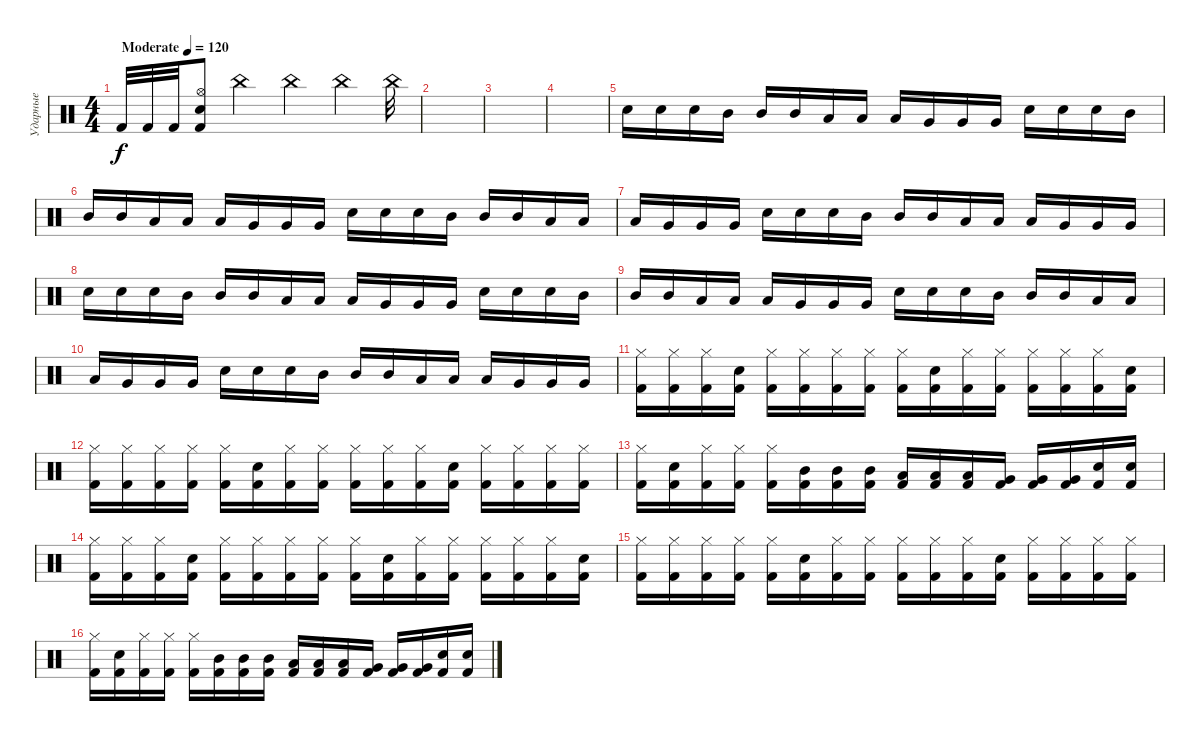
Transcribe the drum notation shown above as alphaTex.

\track ("Ударные" "Ударные") {instrument percussion}
\staff {score}
\articulation defaults
\ts (4 4)
\tempo (120 "Moderate")
\clef neutral
\ks c "Kick (hit) 2".32{dy f} "Kick (hit) 2".32 "Kick (hit) 2".32
("Hi-Hat (open)" "Snare (hit) 2" "Kick (hit) 2").8 "China (hit)".4 "China (hit)".4 "China (hit)".4 "China (hit)".32 |
|
|
|
"Snare (hit) 2".16 "Snare (hit) 2".16 "Snare (hit) 2".16 "Mid Tom (hit)".16 "Mid Tom (hit)".16 "Mid Tom (hit)".16 "Low Tom (hit)".16 "Low Tom (hit)".16 "Low Tom (hit)".16 "Very Low Tom (hit)".16 "Very Low Tom (hit)".16 "Very Low Tom (hit)".16 "Snare (hit) 2".16 "Snare (hit) 2".16 "Snare (hit) 2".16 "Mid Tom (hit)".16 |
"Mid Tom (hit)".16 "Mid Tom (hit)".16 "Low Tom (hit)".16 "Low Tom (hit)".16 "Low Tom (hit)".16 "Very Low Tom (hit)".16 "Very Low Tom (hit)".16 "Very Low Tom (hit)".16 "Snare (hit) 2".16 "Snare (hit) 2".16 "Snare (hit) 2".16 "Mid Tom (hit)".16 "Mid Tom (hit)".16 "Mid Tom (hit)".16 "Low Tom (hit)".16 "Low Tom (hit)".16 |
"Low Tom (hit)".16 "Very Low Tom (hit)".16 "Very Low Tom (hit)".16 "Very Low Tom (hit)".16 "Snare (hit) 2".16 "Snare (hit) 2".16 "Snare (hit) 2".16 "Mid Tom (hit)".16 "Mid Tom (hit)".16 "Mid Tom (hit)".16 "Low Tom (hit)".16 "Low Tom (hit)".16 "Low Tom (hit)".16 "Very Low Tom (hit)".16 "Very Low Tom (hit)".16 "Very Low Tom (hit)".16 |
"Snare (hit) 2".16 "Snare (hit) 2".16 "Snare (hit) 2".16 "Mid Tom (hit)".16 "Mid Tom (hit)".16 "Mid Tom (hit)".16 "Low Tom (hit)".16 "Low Tom (hit)".16 "Low Tom (hit)".16 "Very Low Tom (hit)".16 "Very Low Tom (hit)".16 "Very Low Tom (hit)".16 "Snare (hit) 2".16 "Snare (hit) 2".16 "Snare (hit) 2".16 "Mid Tom (hit)".16 |
"Mid Tom (hit)".16 "Mid Tom (hit)".16 "Low Tom (hit)".16 "Low Tom (hit)".16 "Low Tom (hit)".16 "Very Low Tom (hit)".16 "Very Low Tom (hit)".16 "Very Low Tom (hit)".16 "Snare (hit) 2".16 "Snare (hit) 2".16 "Snare (hit) 2".16 "Mid Tom (hit)".16 "Mid Tom (hit)".16 "Mid Tom (hit)".16 "Low Tom (hit)".16 "Low Tom (hit)".16 |
"Low Tom (hit)".16 "Very Low Tom (hit)".16 "Very Low Tom (hit)".16 "Very Low Tom (hit)".16 "Snare (hit) 2".16 "Snare (hit) 2".16 "Snare (hit) 2".16 "Mid Tom (hit)".16 "Mid Tom (hit)".16 "Mid Tom (hit)".16 "Low Tom (hit)".16 "Low Tom (hit)".16 "Low Tom (hit)".16 "Very Low Tom (hit)".16 "Very Low Tom (hit)".16 "Very Low Tom (hit)".16 |
("Hi-Hat (closed)" "Kick (hit) 2").16 ("Hi-Hat (closed)" "Kick (hit) 2").16 ("Hi-Hat (closed)" "Kick (hit) 2").16 ("Snare (hit) 2" "Kick (hit) 2").16 ("Hi-Hat (closed)" "Kick (hit) 2").16 ("Hi-Hat (closed)" "Kick (hit) 2").16 ("Hi-Hat (closed)" "Kick (hit) 2").16 ("Hi-Hat (closed)" "Kick (hit) 2").16 ("Hi-Hat (closed)" "Kick (hit) 2").16 ("Snare (hit) 2" "Kick (hit) 2").16 ("Hi-Hat (closed)" "Kick (hit) 2").16 ("Hi-Hat (closed)" "Kick (hit) 2").16 ("Hi-Hat (closed)" "Kick (hit) 2").16 ("Hi-Hat (closed)" "Kick (hit) 2").16 ("Hi-Hat (closed)" "Kick (hit) 2").16 ("Snare (hit) 2" "Kick (hit) 2").16 |
("Hi-Hat (closed)" "Kick (hit) 2").16 ("Hi-Hat (closed)" "Kick (hit) 2").16 ("Hi-Hat (closed)" "Kick (hit) 2").16 ("Hi-Hat (closed)" "Kick (hit) 2").16 ("Hi-Hat (closed)" "Kick (hit) 2").16 ("Snare (hit) 2" "Kick (hit) 2").16 ("Hi-Hat (closed)" "Kick (hit) 2").16 ("Hi-Hat (closed)" "Kick (hit) 2").16 ("Hi-Hat (closed)" "Kick (hit) 2").16 ("Hi-Hat (closed)" "Kick (hit) 2").16 ("Hi-Hat (closed)" "Kick (hit) 2").16 ("Snare (hit) 2" "Kick (hit) 2").16 ("Hi-Hat (closed)" "Kick (hit) 2").16 ("Hi-Hat (closed)" "Kick (hit) 2").16 ("Hi-Hat (closed)" "Kick (hit) 2").16 ("Hi-Hat (closed)" "Kick (hit) 2").16 |
("Hi-Hat (closed)" "Kick (hit) 2").16 ("Snare (hit) 2" "Kick (hit) 2").16 ("Hi-Hat (closed)" "Kick (hit) 2").16 ("Hi-Hat (closed)" "Kick (hit) 2").16 ("Hi-Hat (closed)" "Kick (hit) 2").16 ("Mid Tom (hit)" "Kick (hit) 2").16 ("Mid Tom (hit)" "Kick (hit) 2").16 ("Mid Tom (hit)" "Kick (hit) 2").16 ("Low Tom (hit)" "Kick (hit) 2").16 ("Low Tom (hit)" "Kick (hit) 2").16 ("Low Tom (hit)" "Kick (hit) 2").16 ("Very Low Tom (hit)" "Kick (hit) 2").16 ("Very Low Tom (hit)" "Kick (hit) 2").16 ("Very Low Tom (hit)" "Kick (hit) 2").16 ("Snare (hit) 2" "Kick (hit) 2").16 ("Snare (hit) 2" "Kick (hit) 2").16 |
("Hi-Hat (closed)" "Kick (hit) 2").16 ("Hi-Hat (closed)" "Kick (hit) 2").16 ("Hi-Hat (closed)" "Kick (hit) 2").16 ("Snare (hit) 2" "Kick (hit) 2").16 ("Hi-Hat (closed)" "Kick (hit) 2").16 ("Hi-Hat (closed)" "Kick (hit) 2").16 ("Hi-Hat (closed)" "Kick (hit) 2").16 ("Hi-Hat (closed)" "Kick (hit) 2").16 ("Hi-Hat (closed)" "Kick (hit) 2").16 ("Snare (hit) 2" "Kick (hit) 2").16 ("Hi-Hat (closed)" "Kick (hit) 2").16 ("Hi-Hat (closed)" "Kick (hit) 2").16 ("Hi-Hat (closed)" "Kick (hit) 2").16 ("Hi-Hat (closed)" "Kick (hit) 2").16 ("Hi-Hat (closed)" "Kick (hit) 2").16 ("Snare (hit) 2" "Kick (hit) 2").16 |
("Hi-Hat (closed)" "Kick (hit) 2").16 ("Hi-Hat (closed)" "Kick (hit) 2").16 ("Hi-Hat (closed)" "Kick (hit) 2").16 ("Hi-Hat (closed)" "Kick (hit) 2").16 ("Hi-Hat (closed)" "Kick (hit) 2").16 ("Snare (hit) 2" "Kick (hit) 2").16 ("Hi-Hat (closed)" "Kick (hit) 2").16 ("Hi-Hat (closed)" "Kick (hit) 2").16 ("Hi-Hat (closed)" "Kick (hit) 2").16 ("Hi-Hat (closed)" "Kick (hit) 2").16 ("Hi-Hat (closed)" "Kick (hit) 2").16 ("Snare (hit) 2" "Kick (hit) 2").16 ("Hi-Hat (closed)" "Kick (hit) 2").16 ("Hi-Hat (closed)" "Kick (hit) 2").16 ("Hi-Hat (closed)" "Kick (hit) 2").16 ("Hi-Hat (closed)" "Kick (hit) 2").16 |
("Hi-Hat (closed)" "Kick (hit) 2").16 ("Snare (hit) 2" "Kick (hit) 2").16 ("Hi-Hat (closed)" "Kick (hit) 2").16 ("Hi-Hat (closed)" "Kick (hit) 2").16 ("Hi-Hat (closed)" "Kick (hit) 2").16 ("Mid Tom (hit)" "Kick (hit) 2").16 ("Mid Tom (hit)" "Kick (hit) 2").16 ("Mid Tom (hit)" "Kick (hit) 2").16 ("Low Tom (hit)" "Kick (hit) 2").16 ("Low Tom (hit)" "Kick (hit) 2").16 ("Low Tom (hit)" "Kick (hit) 2").16 ("Very Low Tom (hit)" "Kick (hit) 2").16 ("Very Low Tom (hit)" "Kick (hit) 2").16 ("Very Low Tom (hit)" "Kick (hit) 2").16 ("Snare (hit) 2" "Kick (hit) 2").16 ("Snare (hit) 2" "Kick (hit) 2").16
